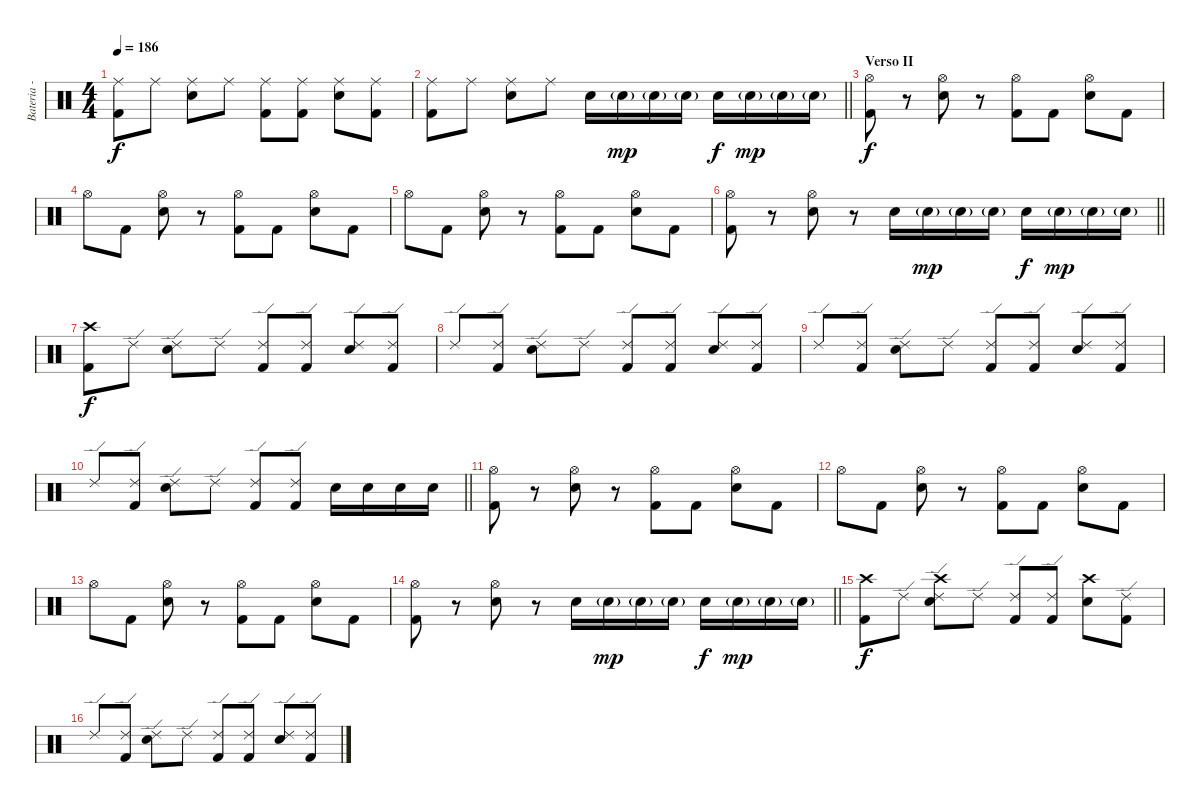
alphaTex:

\track ("Bateria - Larzon" "Bateria - ") {instrument percussion}
\staff {score}
\articulation defaults
\ts (4 4)
\tempo 186
\clef neutral
\ks c
("Kick (hit) 2" "Ride (middle)").8{dy f} "Ride (middle)".8 ("Snare (hit) 2" "Ride (middle)").8 "Ride (middle)".8 ("Kick (hit) 2" "Ride (middle)").8 ("Kick (hit) 2" "Ride (middle)").8 ("Snare (hit) 2" "Ride (middle)").8 ("Kick (hit) 2" "Ride (middle)").8 |
\barLineRight lightlight
("Kick (hit) 2" "Ride (middle)").8 "Ride (middle)".8 ("Snare (hit) 2" "Ride (middle)").8 "Ride (middle)".8 "Snare (hit) 2".16 "Snare (hit) 2"{g}.16{dy mp} "Snare (hit) 2"{g}.16 "Snare (hit) 2"{g}.16 "Snare (hit) 2".16{dy f} "Snare (hit) 2"{g}.16{dy mp} "Snare (hit) 2"{g}.16 "Snare (hit) 2"{g}.16 |
\section ("" "Verso II")
("Kick (hit) 2" "Hi-Hat (open)").8{dy f} r.8 ("Snare (hit) 2" "Hi-Hat (open)").8 r.8 ("Kick (hit) 2" "Hi-Hat (open)").8 "Kick (hit) 2".8 ("Snare (hit) 2" "Hi-Hat (open)").8 "Kick (hit) 2".8 |
"Hi-Hat (open)".8 "Kick (hit) 2".8 ("Snare (hit) 2" "Hi-Hat (open)").8 r.8 ("Kick (hit) 2" "Hi-Hat (open)").8 "Kick (hit) 2".8 ("Snare (hit) 2" "Hi-Hat (open)").8 "Kick (hit) 2".8 |
"Hi-Hat (open)".8 "Kick (hit) 2".8 ("Snare (hit) 2" "Hi-Hat (open)").8 r.8 ("Kick (hit) 2" "Hi-Hat (open)").8 "Kick (hit) 2".8 ("Snare (hit) 2" "Hi-Hat (open)").8 "Kick (hit) 2".8 |
\barLineRight lightlight
("Kick (hit) 2" "Hi-Hat (open)").8 r.8 ("Snare (hit) 2" "Hi-Hat (open)").8 r.8 "Snare (hit) 2".16 "Snare (hit) 2"{g}.16{dy mp} "Snare (hit) 2"{g}.16 "Snare (hit) 2"{g}.16 "Snare (hit) 2".16{dy f} "Snare (hit) 2"{g}.16{dy mp} "Snare (hit) 2"{g}.16 "Snare (hit) 2"{g}.16 |
("Kick (hit) 2" "Crash high (hit)").8{dy f} "Ride (edge) 2".8 ("Snare (hit) 2" "Ride (edge) 2").8 "Ride (edge) 2".8 ("Kick (hit) 2" "Ride (edge) 2").8 ("Kick (hit) 2" "Ride (edge) 2").8 ("Snare (hit) 2" "Ride (edge) 2").8 ("Kick (hit) 2" "Ride (edge) 2").8 |
"Ride (edge) 2".8 ("Kick (hit) 2" "Ride (edge) 2").8 ("Snare (hit) 2" "Ride (edge) 2").8 "Ride (edge) 2".8 ("Kick (hit) 2" "Ride (edge) 2").8 ("Kick (hit) 2" "Ride (edge) 2").8 ("Snare (hit) 2" "Ride (edge) 2").8 ("Kick (hit) 2" "Ride (edge) 2").8 |
"Ride (edge) 2".8 ("Kick (hit) 2" "Ride (edge) 2").8 ("Snare (hit) 2" "Ride (edge) 2").8 "Ride (edge) 2".8 ("Kick (hit) 2" "Ride (edge) 2").8 ("Kick (hit) 2" "Ride (edge) 2").8 ("Snare (hit) 2" "Ride (edge) 2").8 ("Kick (hit) 2" "Ride (edge) 2").8 |
\barLineRight lightlight "Ride (edge) 2".8
("Kick (hit) 2" "Ride (edge) 2").8 ("Snare (hit) 2" "Ride (edge) 2").8 "Ride (edge) 2".8 ("Kick (hit) 2" "Ride (edge) 2").8 ("Kick (hit) 2" "Ride (edge) 2").8 "Snare (hit) 2".16 "Snare (hit) 2".16 "Snare (hit) 2".16 "Snare (hit) 2".16 |
("Kick (hit) 2" "Hi-Hat (open)").8 r.8 ("Snare (hit) 2" "Hi-Hat (open)").8 r.8 ("Kick (hit) 2" "Hi-Hat (open)").8 "Kick (hit) 2".8 ("Snare (hit) 2" "Hi-Hat (open)").8 "Kick (hit) 2".8 |
"Hi-Hat (open)".8 "Kick (hit) 2".8 ("Snare (hit) 2" "Hi-Hat (open)").8 r.8 ("Kick (hit) 2" "Hi-Hat (open)").8 "Kick (hit) 2".8 ("Snare (hit) 2" "Hi-Hat (open)").8 "Kick (hit) 2".8 |
"Hi-Hat (open)".8 "Kick (hit) 2".8 ("Snare (hit) 2" "Hi-Hat (open)").8 r.8 ("Kick (hit) 2" "Hi-Hat (open)").8 "Kick (hit) 2".8 ("Snare (hit) 2" "Hi-Hat (open)").8 "Kick (hit) 2".8 |
\barLineRight lightlight
("Kick (hit) 2" "Hi-Hat (open)").8 r.8 ("Snare (hit) 2" "Hi-Hat (open)").8 r.8 "Snare (hit) 2".16 "Snare (hit) 2"{g}.16{dy mp} "Snare (hit) 2"{g}.16 "Snare (hit) 2"{g}.16 "Snare (hit) 2".16{dy f} "Snare (hit) 2"{g}.16{dy mp} "Snare (hit) 2"{g}.16 "Snare (hit) 2"{g}.16 |
("Kick (hit) 2" "Crash high (hit)").8{dy f} "Ride (edge) 2".8 ("Snare (hit) 2" "Crash high (hit)" "Ride (edge) 2").8 "Ride (edge) 2".8 ("Kick (hit) 2" "Ride (edge) 2").8 ("Kick (hit) 2" "Ride (edge) 2").8 ("Snare (hit) 2" "Crash high (hit)").8 ("Kick (hit) 2" "Ride (edge) 2").8 |
"Ride (edge) 2".8 ("Kick (hit) 2" "Ride (edge) 2").8 ("Snare (hit) 2" "Ride (edge) 2").8 "Ride (edge) 2".8 ("Kick (hit) 2" "Ride (edge) 2").8 ("Kick (hit) 2" "Ride (edge) 2").8 ("Snare (hit) 2" "Ride (edge) 2").8 ("Kick (hit) 2" "Ride (edge) 2").8
